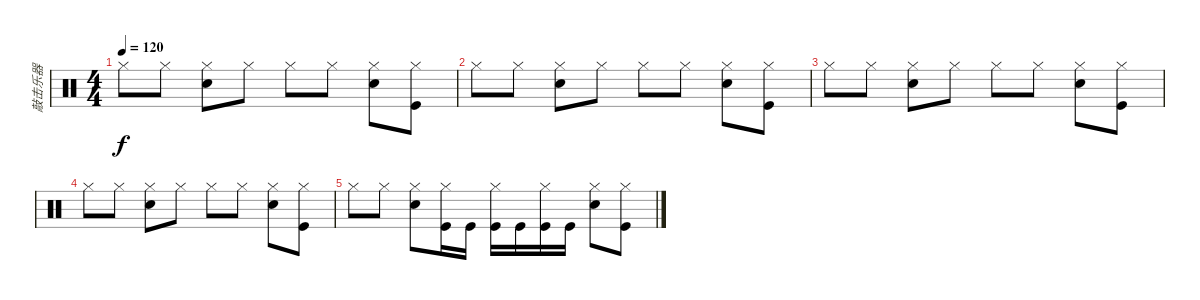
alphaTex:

\track ("敲击乐器" "敲击乐器") {instrument percussion}
\staff {score}
\articulation defaults
\ts (4 4)
\tempo 120
\clef neutral
\ks c "Hi-Hat (closed)".8{dy f} "Hi-Hat (closed)".8
("Hi-Hat (closed)" "Snare (hit) 2").8 "Hi-Hat (closed)".8 "Hi-Hat (closed)".8 "Hi-Hat (closed)".8 ("Hi-Hat (closed)" "Snare (hit) 2").8 ("Hi-Hat (closed)" "Kick (hit)").8 |
"Hi-Hat (closed)".8 "Hi-Hat (closed)".8 ("Hi-Hat (closed)" "Snare (hit) 2").8 "Hi-Hat (closed)".8 "Hi-Hat (closed)".8 "Hi-Hat (closed)".8 ("Hi-Hat (closed)" "Snare (hit) 2").8 ("Hi-Hat (closed)" "Kick (hit)").8 |
"Hi-Hat (closed)".8 "Hi-Hat (closed)".8 ("Hi-Hat (closed)" "Snare (hit) 2").8 "Hi-Hat (closed)".8 "Hi-Hat (closed)".8 "Hi-Hat (closed)".8 ("Hi-Hat (closed)" "Snare (hit) 2").8 ("Hi-Hat (closed)" "Kick (hit)").8 |
"Hi-Hat (closed)".8 "Hi-Hat (closed)".8 ("Hi-Hat (closed)" "Snare (hit) 2").8 "Hi-Hat (closed)".8 "Hi-Hat (closed)".8 "Hi-Hat (closed)".8 ("Hi-Hat (closed)" "Snare (hit) 2").8 ("Hi-Hat (closed)" "Kick (hit)").8 |
"Hi-Hat (closed)".8 "Hi-Hat (closed)".8 ("Hi-Hat (closed)" "Snare (hit) 2").8 ("Hi-Hat (closed)" "Kick (hit)").16 "Kick (hit)".16 ("Hi-Hat (closed)" "Kick (hit)").16 "Kick (hit)".16 ("Hi-Hat (closed)" "Kick (hit)").16 "Kick (hit)".16 ("Hi-Hat (closed)" "Snare (hit) 2").8 ("Hi-Hat (closed)" "Kick (hit)").8
